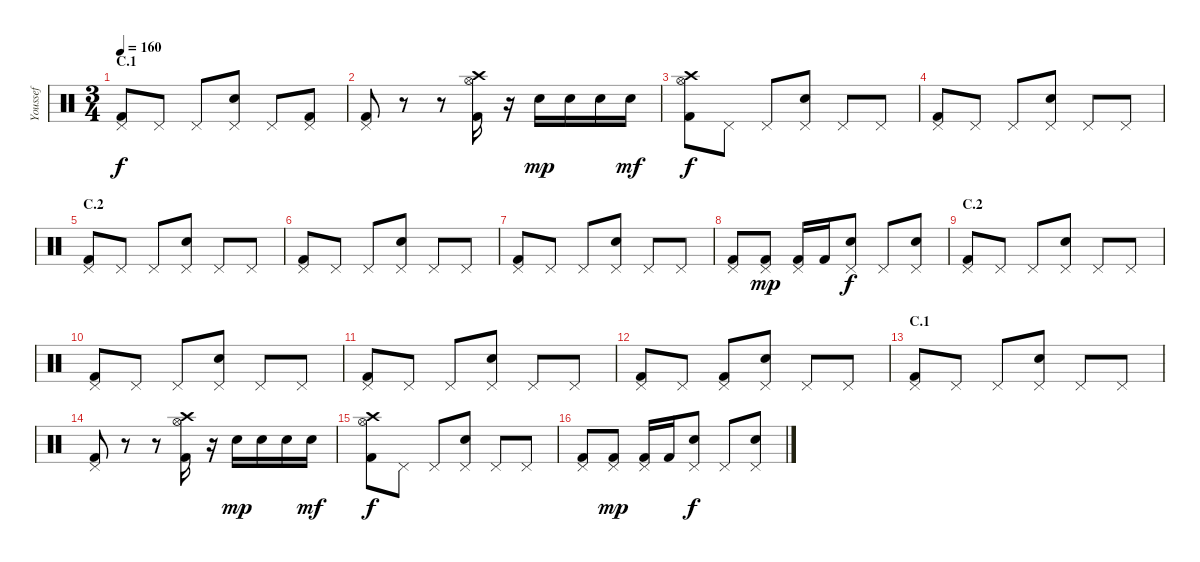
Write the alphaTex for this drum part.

\track ("Youssef" "Youssef") {instrument percussion}
\staff {score}
\articulation defaults
\ts (3 4)
\section ("" "C.1")
\tempo 160
\clef neutral
\ks c
("Kick (hit) 2" "Pedal Hi-Hat (hit)").8{dy f} "Pedal Hi-Hat (hit)".8 "Pedal Hi-Hat (hit)".8 ("Electric Snare (hit)" "Pedal Hi-Hat (hit)").8 "Pedal Hi-Hat (hit)".8 ("Kick (hit) 2" "Pedal Hi-Hat (hit)").8 |
("Kick (hit) 2" "Pedal Hi-Hat (hit)").8 r.8 r.8 ("Kick (hit) 2" "Hi-Hat (open)" "Crash high (hit)").16 r.16 "Electric Snare (hit)".16{dy mp} "Electric Snare (hit)".16 "Electric Snare (hit)".16 "Electric Snare (hit)".16{dy mf} |
("Kick (hit) 2" "Hi-Hat (open)" "Crash high (hit)").8{dy f} "Pedal Hi-Hat (hit)".8 "Pedal Hi-Hat (hit)".8 ("Electric Snare (hit)" "Pedal Hi-Hat (hit)").8 "Pedal Hi-Hat (hit)".8 "Pedal Hi-Hat (hit)".8 |
("Kick (hit) 2" "Pedal Hi-Hat (hit)").8 "Pedal Hi-Hat (hit)".8 "Pedal Hi-Hat (hit)".8 ("Electric Snare (hit)" "Pedal Hi-Hat (hit)").8 "Pedal Hi-Hat (hit)".8 "Pedal Hi-Hat (hit)".8 |
\section ("" "C.2")
("Kick (hit) 2" "Pedal Hi-Hat (hit)").8 "Pedal Hi-Hat (hit)".8 "Pedal Hi-Hat (hit)".8 ("Electric Snare (hit)" "Pedal Hi-Hat (hit)").8 "Pedal Hi-Hat (hit)".8 "Pedal Hi-Hat (hit)".8 |
("Kick (hit) 2" "Pedal Hi-Hat (hit)").8 "Pedal Hi-Hat (hit)".8 "Pedal Hi-Hat (hit)".8 ("Electric Snare (hit)" "Pedal Hi-Hat (hit)").8 "Pedal Hi-Hat (hit)".8 "Pedal Hi-Hat (hit)".8 |
("Kick (hit) 2" "Pedal Hi-Hat (hit)").8 "Pedal Hi-Hat (hit)".8 "Pedal Hi-Hat (hit)".8 ("Electric Snare (hit)" "Pedal Hi-Hat (hit)").8 "Pedal Hi-Hat (hit)".8 "Pedal Hi-Hat (hit)".8 |
("Kick (hit) 2" "Pedal Hi-Hat (hit)").8 ("Kick (hit) 2" "Pedal Hi-Hat (hit)").8{dy mp} ("Kick (hit) 2" "Pedal Hi-Hat (hit)").16 "Kick (hit) 2".16 ("Electric Snare (hit)" "Pedal Hi-Hat (hit)").8{dy f} "Pedal Hi-Hat (hit)".8 ("Electric Snare (hit)" "Pedal Hi-Hat (hit)").8 |
\section ("" "C.2")
("Kick (hit) 2" "Pedal Hi-Hat (hit)").8 "Pedal Hi-Hat (hit)".8 "Pedal Hi-Hat (hit)".8 ("Electric Snare (hit)" "Pedal Hi-Hat (hit)").8 "Pedal Hi-Hat (hit)".8 "Pedal Hi-Hat (hit)".8 |
("Kick (hit) 2" "Pedal Hi-Hat (hit)").8 "Pedal Hi-Hat (hit)".8 "Pedal Hi-Hat (hit)".8 ("Electric Snare (hit)" "Pedal Hi-Hat (hit)").8 "Pedal Hi-Hat (hit)".8 "Pedal Hi-Hat (hit)".8 |
("Kick (hit) 2" "Pedal Hi-Hat (hit)").8 "Pedal Hi-Hat (hit)".8 "Pedal Hi-Hat (hit)".8 ("Electric Snare (hit)" "Pedal Hi-Hat (hit)").8 "Pedal Hi-Hat (hit)".8 "Pedal Hi-Hat (hit)".8 |
("Kick (hit) 2" "Pedal Hi-Hat (hit)").8 "Pedal Hi-Hat (hit)".8 ("Kick (hit) 2" "Pedal Hi-Hat (hit)").8 ("Electric Snare (hit)" "Pedal Hi-Hat (hit)").8 "Pedal Hi-Hat (hit)".8 "Pedal Hi-Hat (hit)".8 |
\section ("" "C.1")
("Kick (hit) 2" "Pedal Hi-Hat (hit)").8 "Pedal Hi-Hat (hit)".8 "Pedal Hi-Hat (hit)".8 ("Electric Snare (hit)" "Pedal Hi-Hat (hit)").8 "Pedal Hi-Hat (hit)".8 "Pedal Hi-Hat (hit)".8 |
("Kick (hit) 2" "Pedal Hi-Hat (hit)").8 r.8 r.8 ("Kick (hit) 2" "Hi-Hat (open)" "Crash high (hit)").16 r.16 "Electric Snare (hit)".16{dy mp} "Electric Snare (hit)".16 "Electric Snare (hit)".16 "Electric Snare (hit)".16{dy mf} |
("Kick (hit) 2" "Hi-Hat (open)" "Crash high (hit)").8{dy f} "Pedal Hi-Hat (hit)".8 "Pedal Hi-Hat (hit)".8 ("Electric Snare (hit)" "Pedal Hi-Hat (hit)").8 "Pedal Hi-Hat (hit)".8 "Pedal Hi-Hat (hit)".8 |
("Kick (hit) 2" "Pedal Hi-Hat (hit)").8 ("Kick (hit) 2" "Pedal Hi-Hat (hit)").8{dy mp} ("Kick (hit) 2" "Pedal Hi-Hat (hit)").16 "Kick (hit) 2".16 ("Electric Snare (hit)" "Pedal Hi-Hat (hit)").8{dy f} "Pedal Hi-Hat (hit)".8 ("Electric Snare (hit)" "Pedal Hi-Hat (hit)").8
